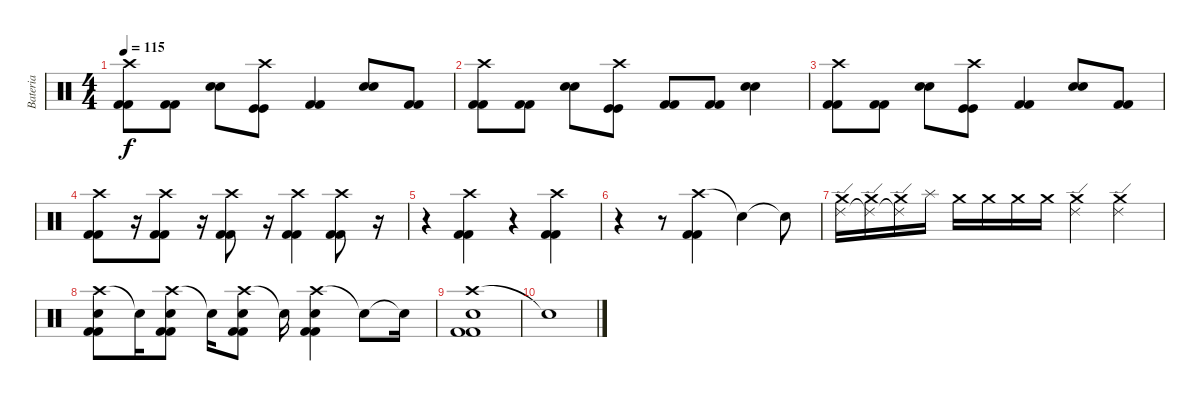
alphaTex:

\track ("Bateria" "Bateria") {instrument percussion}
\staff {score}
\articulation defaults
\ts (4 4)
\tempo 115
\clef neutral
\ks c
("Crash high (hit)" "Kick (hit) 2" "Kick (hit) 2").8{dy f} ("Kick (hit) 2" "Kick (hit) 2").8 ("Electric Snare (hit)" "Snare (hit) 2").8 ("Crash high (hit)" "Kick (hit)" "Kick (hit)").8 ("Kick (hit) 2" "Kick (hit) 2").4 ("Electric Snare (hit)" "Snare (hit) 2").8 ("Kick (hit) 2" "Kick (hit) 2").8 |
("Crash high (hit)" "Kick (hit) 2" "Kick (hit) 2").8 ("Kick (hit) 2" "Kick (hit) 2").8 ("Electric Snare (hit)" "Snare (hit) 2").8 ("Crash high (hit)" "Kick (hit)" "Kick (hit)").8 ("Kick (hit) 2" "Kick (hit) 2").8 ("Kick (hit) 2" "Kick (hit) 2").8 ("Electric Snare (hit)" "Snare (hit) 2").4 |
("Crash high (hit)" "Kick (hit) 2" "Kick (hit) 2").8 ("Kick (hit) 2" "Kick (hit) 2").8 ("Electric Snare (hit)" "Snare (hit) 2").8 ("Crash high (hit)" "Kick (hit)" "Kick (hit)").8 ("Kick (hit) 2" "Kick (hit) 2").4 ("Electric Snare (hit)" "Snare (hit) 2").8 ("Kick (hit) 2" "Kick (hit) 2").8 |
("Crash high (hit)" "Kick (hit) 2" "Kick (hit) 2").8 r.16 ("Crash high (hit)" "Kick (hit) 2" "Kick (hit) 2").8 r.16 ("Crash high (hit)" "Kick (hit) 2" "Kick (hit) 2").8 r.16 ("Crash high (hit)" "Kick (hit) 2" "Kick (hit) 2").4 ("Crash high (hit)" "Kick (hit) 2" "Kick (hit) 2").8 r.16 |
r.4 ("Crash high (hit)" "Kick (hit) 2" "Kick (hit) 2").4 r.4 ("Crash high (hit)" "Kick (hit) 2" "Kick (hit) 2").4 |
r.4 r.8 ("Crash high (hit)" "Kick (hit) 2" "Kick (hit) 2").4 "Snare (hit)"{t}.4 "Snare (hit)"{t}.8 |
("Ride (edge) 2" "Crash medium (hit)").16 ("Ride (edge) 2"{t} "Crash medium (hit)").16 ("Ride (edge) 2"{t} "Crash medium (hit)").16 "Splash (hit)".16 "Crash medium (hit)".16 "Crash medium (hit)".16 "Crash medium (hit)".16 "Crash medium (hit)".16 ("Ride (edge) 2" "Crash medium (hit)").4 ("Ride (edge) 2" "Crash medium (hit)").4 |
("Crash high (hit)" "Snare (hit) 2" "Kick (hit) 2" "Kick (hit) 2").8 "Snare (hit)"{t}.16 ("Crash high (hit)" "Snare (hit) 2" "Kick (hit) 2" "Kick (hit) 2").8 "Snare (hit)"{t}.16 ("Crash high (hit)" "Snare (hit) 2" "Kick (hit) 2" "Kick (hit) 2").8 "Snare (hit)"{t}.16 ("Crash high (hit)" "Snare (hit) 2" "Kick (hit) 2" "Kick (hit) 2").4 "Snare (hit)"{t}.8 "Snare (hit)"{t}.16 |
("Crash high (hit)" "Snare (hit) 2" "Kick (hit) 2" "Kick (hit) 2").1 |
"Snare (hit)"{t}.1
